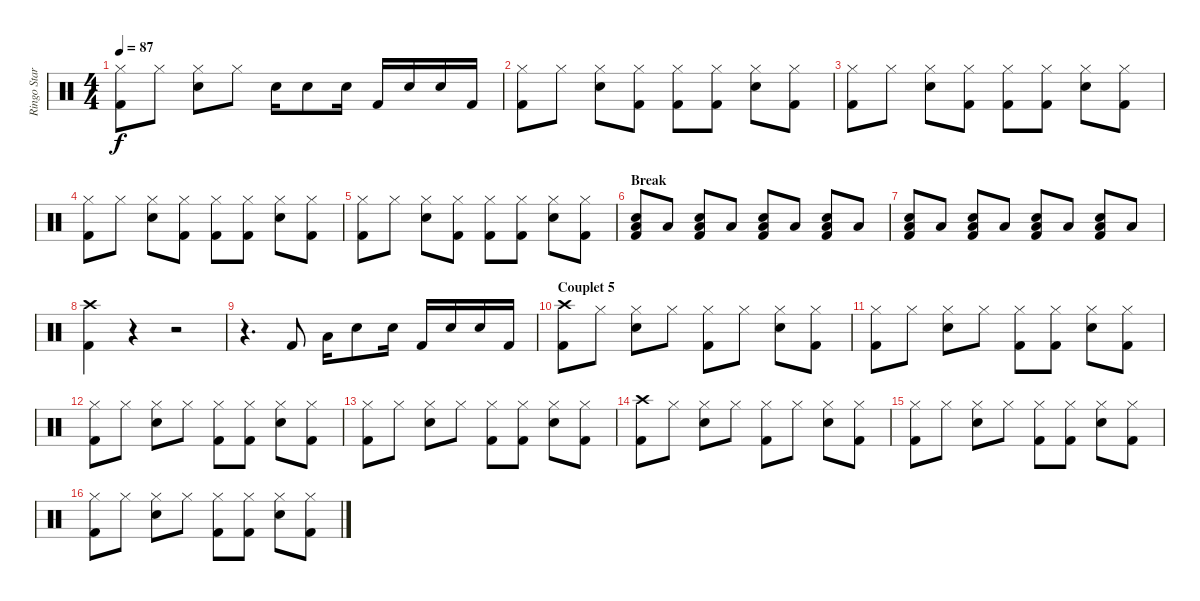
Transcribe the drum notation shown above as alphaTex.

\track ("Ringo Starr (Batterie)" "Ringo Star") {instrument percussion}
\staff {score}
\articulation defaults
\ts (4 4)
\tempo 87
\clef neutral
\ks c
("Hi-Hat (closed)" "Kick (hit) 2").8{dy f} "Hi-Hat (closed)".8 ("Hi-Hat (closed)" "Snare (hit) 2").8 "Hi-Hat (closed)".8 "Snare (hit) 2".16 "Snare (hit) 2".8 "Snare (hit) 2".16 "Kick (hit) 2".16 "Snare (hit) 2".16 "Snare (hit) 2".16 "Kick (hit) 2".16 |
("Hi-Hat (closed)" "Kick (hit) 2").8 "Hi-Hat (closed)".8 ("Hi-Hat (closed)" "Snare (hit) 2").8 ("Hi-Hat (closed)" "Kick (hit) 2").8 ("Hi-Hat (closed)" "Kick (hit) 2").8 ("Hi-Hat (closed)" "Kick (hit) 2").8 ("Hi-Hat (closed)" "Snare (hit) 2").8 ("Hi-Hat (closed)" "Kick (hit) 2").8 |
("Hi-Hat (closed)" "Kick (hit) 2").8 "Hi-Hat (closed)".8 ("Hi-Hat (closed)" "Snare (hit) 2").8 ("Hi-Hat (closed)" "Kick (hit) 2").8 ("Hi-Hat (closed)" "Kick (hit) 2").8 ("Hi-Hat (closed)" "Kick (hit) 2").8 ("Hi-Hat (closed)" "Snare (hit) 2").8 ("Hi-Hat (closed)" "Kick (hit) 2").8 |
("Hi-Hat (closed)" "Kick (hit) 2").8 "Hi-Hat (closed)".8 ("Hi-Hat (closed)" "Snare (hit) 2").8 ("Hi-Hat (closed)" "Kick (hit) 2").8 ("Hi-Hat (closed)" "Kick (hit) 2").8 ("Hi-Hat (closed)" "Kick (hit) 2").8 ("Hi-Hat (closed)" "Snare (hit) 2").8 ("Hi-Hat (closed)" "Kick (hit) 2").8 |
("Hi-Hat (closed)" "Kick (hit) 2").8 "Hi-Hat (closed)".8 ("Hi-Hat (closed)" "Snare (hit) 2").8 ("Hi-Hat (closed)" "Kick (hit) 2").8 ("Hi-Hat (closed)" "Kick (hit) 2").8 ("Hi-Hat (closed)" "Kick (hit) 2").8 ("Hi-Hat (closed)" "Snare (hit) 2").8 ("Hi-Hat (closed)" "Kick (hit) 2").8 |
\section ("" "Break")
("Snare (hit) 2" "Low Tom (hit)" "Kick (hit) 2").8 "Low Tom (hit)".8 ("Snare (hit) 2" "Low Tom (hit)" "Kick (hit) 2").8 "Low Tom (hit)".8 ("Snare (hit) 2" "Low Tom (hit)" "Kick (hit) 2").8 "Low Tom (hit)".8 ("Snare (hit) 2" "Low Tom (hit)" "Kick (hit) 2").8 "Low Tom (hit)".8 |
("Snare (hit) 2" "Low Tom (hit)" "Kick (hit) 2").8 "Low Tom (hit)".8 ("Snare (hit) 2" "Low Tom (hit)" "Kick (hit) 2").8 "Low Tom (hit)".8 ("Snare (hit) 2" "Low Tom (hit)" "Kick (hit) 2").8 "Low Tom (hit)".8 ("Snare (hit) 2" "Low Tom (hit)" "Kick (hit) 2").8 "Low Tom (hit)".8 |
("Crash high (hit)" "Kick (hit) 2").4 r.4 r.2 |
r.4{d} "Kick (hit) 2".8 "Low Tom (hit)".16 "Snare (hit) 2".8 "Snare (hit) 2".16 "Kick (hit) 2".16 "Snare (hit) 2".16 "Snare (hit) 2".16 "Kick (hit) 2".16 |
\section ("" "Couplet 5")
("Crash high (hit)" "Kick (hit) 2").8 "Hi-Hat (closed)".8 ("Hi-Hat (closed)" "Snare (hit) 2").8 "Hi-Hat (closed)".8 ("Hi-Hat (closed)" "Kick (hit) 2").8 "Hi-Hat (closed)".8 ("Hi-Hat (closed)" "Snare (hit) 2").8 ("Hi-Hat (closed)" "Kick (hit) 2").8 |
("Hi-Hat (closed)" "Kick (hit) 2").8 "Hi-Hat (closed)".8 ("Hi-Hat (closed)" "Snare (hit) 2").8 "Hi-Hat (closed)".8 ("Hi-Hat (closed)" "Kick (hit) 2").8 ("Hi-Hat (closed)" "Kick (hit) 2").8 ("Hi-Hat (closed)" "Snare (hit) 2").8 ("Hi-Hat (closed)" "Kick (hit) 2").8 |
("Hi-Hat (closed)" "Kick (hit) 2").8 "Hi-Hat (closed)".8 ("Hi-Hat (closed)" "Snare (hit) 2").8 "Hi-Hat (closed)".8 ("Hi-Hat (closed)" "Kick (hit) 2").8 ("Hi-Hat (closed)" "Kick (hit) 2").8 ("Hi-Hat (closed)" "Snare (hit) 2").8 ("Hi-Hat (closed)" "Kick (hit) 2").8 |
("Hi-Hat (closed)" "Kick (hit) 2").8 "Hi-Hat (closed)".8 ("Hi-Hat (closed)" "Snare (hit) 2").8 "Hi-Hat (closed)".8 ("Hi-Hat (closed)" "Kick (hit) 2").8 ("Hi-Hat (closed)" "Kick (hit) 2").8 ("Hi-Hat (closed)" "Snare (hit) 2").8 ("Hi-Hat (closed)" "Kick (hit) 2").8 |
("Crash high (hit)" "Kick (hit) 2").8 "Hi-Hat (closed)".8 ("Hi-Hat (closed)" "Snare (hit) 2").8 "Hi-Hat (closed)".8 ("Hi-Hat (closed)" "Kick (hit) 2").8 "Hi-Hat (closed)".8 ("Hi-Hat (closed)" "Snare (hit) 2").8 ("Hi-Hat (closed)" "Kick (hit) 2").8 |
("Hi-Hat (closed)" "Kick (hit) 2").8 "Hi-Hat (closed)".8 ("Hi-Hat (closed)" "Snare (hit) 2").8 "Hi-Hat (closed)".8 ("Hi-Hat (closed)" "Kick (hit) 2").8 ("Hi-Hat (closed)" "Kick (hit) 2").8 ("Hi-Hat (closed)" "Snare (hit) 2").8 ("Hi-Hat (closed)" "Kick (hit) 2").8 |
("Hi-Hat (closed)" "Kick (hit) 2").8 "Hi-Hat (closed)".8 ("Hi-Hat (closed)" "Snare (hit) 2").8 "Hi-Hat (closed)".8 ("Hi-Hat (closed)" "Kick (hit) 2").8 ("Hi-Hat (closed)" "Kick (hit) 2").8 ("Hi-Hat (closed)" "Snare (hit) 2").8 ("Hi-Hat (closed)" "Kick (hit) 2").8
